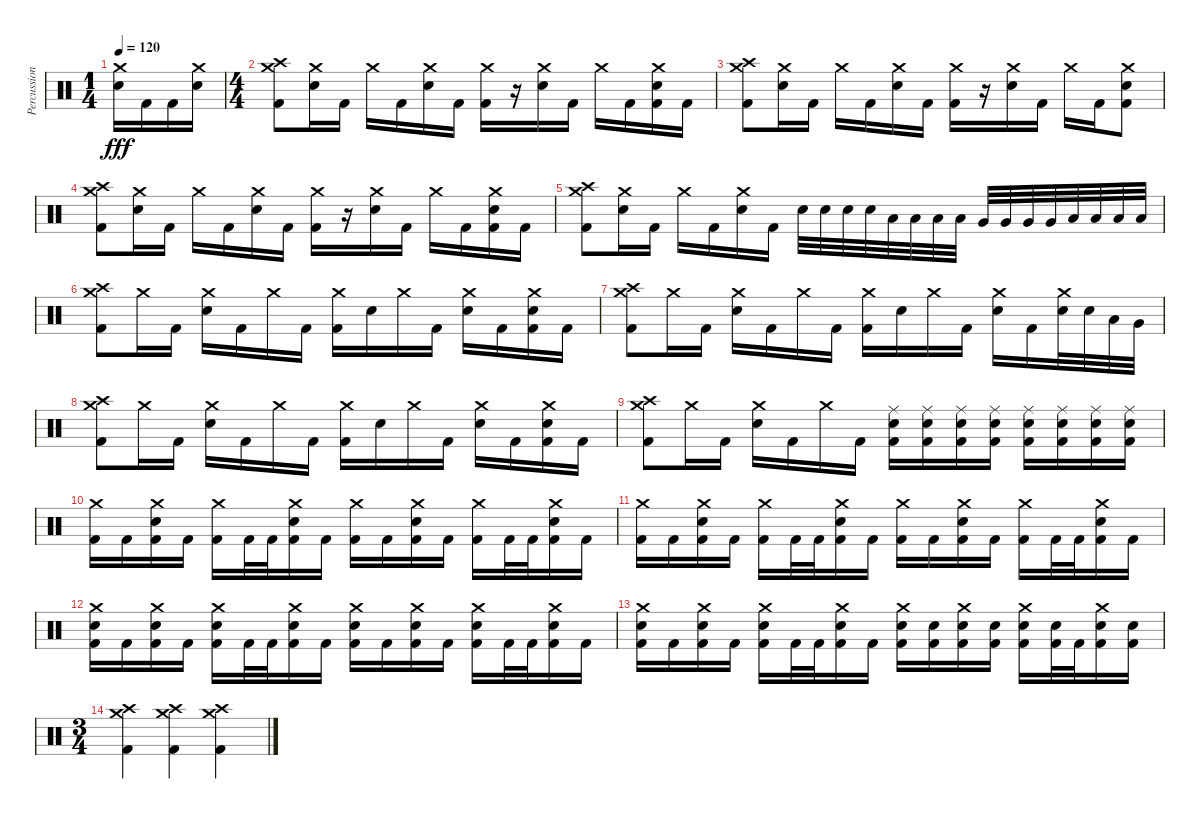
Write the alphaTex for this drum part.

\track ("Percussion" "Percussion") {instrument percussion}
\staff {score}
\articulation defaults
\ts (1 4)
\tempo 120
\clef neutral
\ks c
("Crash medium (hit)" "Electric Snare (hit)").16{dy fff} "Kick (hit) 2".16 "Kick (hit) 2".16 ("Crash medium (hit)" "Electric Snare (hit)").16 |
\ts (4 4)
("Crash high (hit)" "Crash medium (hit)" "Kick (hit) 2").8 ("Crash medium (hit)" "Electric Snare (hit)").16 "Kick (hit) 2".16 "Crash medium (hit)".16 "Kick (hit) 2".16 ("Crash medium (hit)" "Electric Snare (hit)").16 "Kick (hit) 2".16 ("Crash medium (hit)" "Kick (hit) 2").16 r.16 ("Crash medium (hit)" "Electric Snare (hit)").16 "Kick (hit) 2".16 "Crash medium (hit)".16 "Kick (hit) 2".16 ("Crash medium (hit)" "Electric Snare (hit)" "Kick (hit) 2").16 "Kick (hit) 2".16 |
("Crash high (hit)" "Crash medium (hit)" "Kick (hit) 2").8 ("Crash medium (hit)" "Electric Snare (hit)").16 "Kick (hit) 2".16 "Crash medium (hit)".16 "Kick (hit) 2".16 ("Crash medium (hit)" "Electric Snare (hit)").16 "Kick (hit) 2".16 ("Crash medium (hit)" "Kick (hit) 2").16 r.16 ("Crash medium (hit)" "Electric Snare (hit)").16 "Kick (hit) 2".16 "Crash medium (hit)".16 "Kick (hit) 2".16 ("Crash medium (hit)" "Electric Snare (hit)" "Kick (hit) 2").8 |
("Crash high (hit)" "Crash medium (hit)" "Kick (hit) 2").8 ("Crash medium (hit)" "Electric Snare (hit)").16 "Kick (hit) 2".16 "Crash medium (hit)".16 "Kick (hit) 2".16 ("Crash medium (hit)" "Electric Snare (hit)").16 "Kick (hit) 2".16 ("Crash medium (hit)" "Kick (hit) 2").16 r.16 ("Crash medium (hit)" "Electric Snare (hit)").16 "Kick (hit) 2".16 "Crash medium (hit)".16 "Kick (hit) 2".16 ("Crash medium (hit)" "Electric Snare (hit)" "Kick (hit) 2").16 "Kick (hit) 2".16 |
("Crash high (hit)" "Crash medium (hit)" "Kick (hit) 2").8 ("Crash medium (hit)" "Electric Snare (hit)").16 "Kick (hit) 2".16 "Crash medium (hit)".16 "Kick (hit) 2".16 ("Crash medium (hit)" "Electric Snare (hit)").16 "Kick (hit) 2".16 "Electric Snare (hit)".32 "Electric Snare (hit)".32 "Electric Snare (hit)".32 "Electric Snare (hit)".32 "Low Tom (hit)".32 "Low Tom (hit)".32 "Low Tom (hit)".32 "Low Tom (hit)".32 "Very Low Tom (hit)".32 "Very Low Tom (hit)".32 "Very Low Tom (hit)".32 "Very Low Tom (hit)".32 "Low Floor Tom (hit)".32 "Low Floor Tom (hit)".32 "Low Floor Tom (hit)".32 "Low Floor Tom (hit)".32 |
("Crash high (hit)" "Crash medium (hit)" "Kick (hit) 2").8 "Crash medium (hit)".16 "Kick (hit) 2".16 ("Crash medium (hit)" "Electric Snare (hit)").16 "Kick (hit) 2".16 "Crash medium (hit)".16 "Kick (hit) 2".16 ("Crash medium (hit)" "Kick (hit) 2").16 "Electric Snare (hit)".16 "Crash medium (hit)".16 "Kick (hit) 2".16 ("Crash medium (hit)" "Electric Snare (hit)").16 "Kick (hit) 2".16 ("Crash medium (hit)" "Electric Snare (hit)" "Kick (hit) 2").16 "Kick (hit) 2".16 |
("Crash high (hit)" "Crash medium (hit)" "Kick (hit) 2").8 "Crash medium (hit)".16 "Kick (hit) 2".16 ("Crash medium (hit)" "Electric Snare (hit)").16 "Kick (hit) 2".16 "Crash medium (hit)".16 "Kick (hit) 2".16 ("Crash medium (hit)" "Kick (hit) 2").16 "Electric Snare (hit)".16 "Crash medium (hit)".16 "Kick (hit) 2".16 ("Crash medium (hit)" "Electric Snare (hit)").16 "Kick (hit) 2".16 ("Crash medium (hit)" "Electric Snare (hit)").32 "Electric Snare (hit)".32 "Low Tom (hit)".32 "Very Low Tom (hit)".32 |
("Crash high (hit)" "Crash medium (hit)" "Kick (hit) 2").8 "Crash medium (hit)".16 "Kick (hit) 2".16 ("Crash medium (hit)" "Electric Snare (hit)").16 "Kick (hit) 2".16 "Crash medium (hit)".16 "Kick (hit) 2".16 ("Crash medium (hit)" "Kick (hit) 2").16 "Electric Snare (hit)".16 "Crash medium (hit)".16 "Kick (hit) 2".16 ("Crash medium (hit)" "Electric Snare (hit)").16 "Kick (hit) 2".16 ("Crash medium (hit)" "Electric Snare (hit)" "Kick (hit) 2").16 "Kick (hit) 2".16 |
("Crash high (hit)" "Crash medium (hit)" "Kick (hit) 2").8 "Crash medium (hit)".16 "Kick (hit) 2".16 ("Crash medium (hit)" "Electric Snare (hit)").16 "Kick (hit) 2".16 "Crash medium (hit)".16 "Kick (hit) 2".16 ("Ride (middle)" "Electric Snare (hit)" "Kick (hit) 2").16 ("Ride (middle)" "Electric Snare (hit)" "Kick (hit) 2").16 ("Ride (middle)" "Electric Snare (hit)" "Kick (hit) 2").16 ("Ride (middle)" "Electric Snare (hit)" "Kick (hit) 2").16 ("Ride (middle)" "Electric Snare (hit)" "Kick (hit) 2").16 ("Ride (middle)" "Electric Snare (hit)" "Kick (hit) 2").16 ("Ride (middle)" "Electric Snare (hit)" "Kick (hit) 2").16 ("Ride (middle)" "Electric Snare (hit)" "Kick (hit) 2").16 |
("Crash medium (hit)" "Kick (hit) 2").16 "Kick (hit) 2".16 ("Crash medium (hit)" "Electric Snare (hit)" "Kick (hit) 2").16 "Kick (hit) 2".16 ("Crash medium (hit)" "Kick (hit) 2").16 "Kick (hit) 2".32 "Kick (hit) 2".32 ("Crash medium (hit)" "Electric Snare (hit)" "Kick (hit) 2").16 "Kick (hit) 2".16 ("Crash medium (hit)" "Kick (hit) 2").16 "Kick (hit) 2".16 ("Crash medium (hit)" "Electric Snare (hit)" "Kick (hit) 2").16 "Kick (hit) 2".16 ("Crash medium (hit)" "Kick (hit) 2").16 "Kick (hit) 2".32 "Kick (hit) 2".32 ("Crash medium (hit)" "Electric Snare (hit)" "Kick (hit) 2").16 "Kick (hit) 2".16 |
("Crash medium (hit)" "Kick (hit) 2").16 "Kick (hit) 2".16 ("Crash medium (hit)" "Electric Snare (hit)" "Kick (hit) 2").16 "Kick (hit) 2".16 ("Crash medium (hit)" "Kick (hit) 2").16 "Kick (hit) 2".32 "Kick (hit) 2".32 ("Crash medium (hit)" "Electric Snare (hit)" "Kick (hit) 2").16 "Kick (hit) 2".16 ("Crash medium (hit)" "Kick (hit) 2").16 "Kick (hit) 2".16 ("Crash medium (hit)" "Electric Snare (hit)" "Kick (hit) 2").16 "Kick (hit) 2".16 ("Crash medium (hit)" "Kick (hit) 2").16 "Kick (hit) 2".32 "Kick (hit) 2".32 ("Crash medium (hit)" "Electric Snare (hit)" "Kick (hit) 2").16 "Kick (hit) 2".16 |
("Crash medium (hit)" "Electric Snare (hit)" "Kick (hit) 2").16 "Kick (hit) 2".16 ("Crash medium (hit)" "Electric Snare (hit)" "Kick (hit) 2").16 "Kick (hit) 2".16 ("Crash medium (hit)" "Electric Snare (hit)" "Kick (hit) 2").16 "Kick (hit) 2".32 "Kick (hit) 2".32 ("Crash medium (hit)" "Electric Snare (hit)" "Kick (hit) 2").16 "Kick (hit) 2".16 ("Crash medium (hit)" "Electric Snare (hit)" "Kick (hit) 2").16 "Kick (hit) 2".16 ("Crash medium (hit)" "Electric Snare (hit)" "Kick (hit) 2").16 "Kick (hit) 2".16 ("Crash medium (hit)" "Electric Snare (hit)" "Kick (hit) 2").16 "Kick (hit) 2".32 "Kick (hit) 2".32 ("Crash medium (hit)" "Electric Snare (hit)" "Kick (hit) 2").16 "Kick (hit) 2".16 |
("Crash medium (hit)" "Electric Snare (hit)" "Kick (hit) 2").16 "Kick (hit) 2".16 ("Crash medium (hit)" "Electric Snare (hit)" "Kick (hit) 2").16 "Kick (hit) 2".16 ("Crash medium (hit)" "Electric Snare (hit)" "Kick (hit) 2").16 "Kick (hit) 2".32 "Kick (hit) 2".32 ("Crash medium (hit)" "Electric Snare (hit)" "Kick (hit) 2").16 "Kick (hit) 2".16 ("Crash medium (hit)" "Electric Snare (hit)" "Kick (hit) 2").16 ("Electric Snare (hit)" "Kick (hit) 2").16 ("Crash medium (hit)" "Electric Snare (hit)" "Kick (hit) 2").16 ("Electric Snare (hit)" "Kick (hit) 2").16 ("Crash medium (hit)" "Electric Snare (hit)" "Kick (hit) 2").16 ("Electric Snare (hit)" "Kick (hit) 2").32 "Kick (hit) 2".32 ("Crash medium (hit)" "Electric Snare (hit)" "Kick (hit) 2").16 ("Electric Snare (hit)" "Kick (hit) 2").16 |
\ts (3 4)
("Crash high (hit)" "Crash medium (hit)" "Kick (hit) 2").4 ("Crash high (hit)" "Crash medium (hit)" "Kick (hit) 2").4 ("Crash high (hit)" "Crash medium (hit)" "Kick (hit) 2").4
